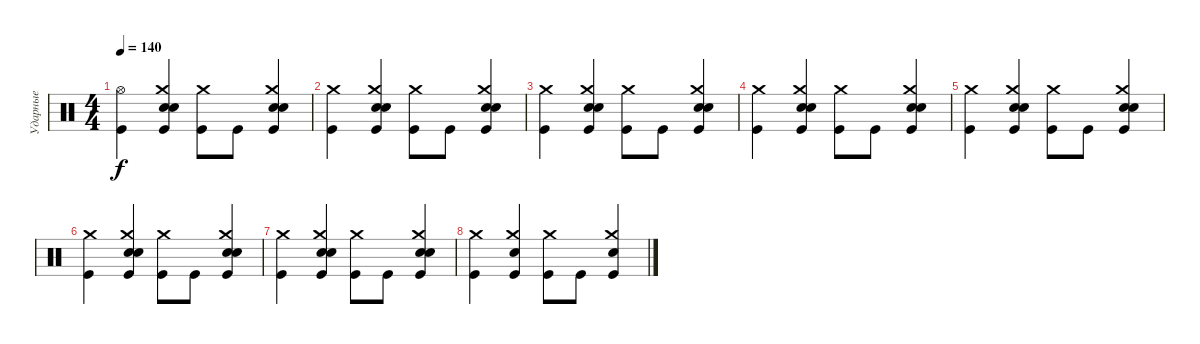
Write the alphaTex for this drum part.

\track ("Ударные" "Ударные") {instrument percussion}
\staff {score}
\articulation defaults
\ts (4 4)
\tempo 140
\clef neutral
\ks c
("Hi-Hat (open)" "Kick (hit)").4{dy f} ("Crash medium (hit)" "Electric Snare (hit)" "Snare (hit) 2" "Kick (hit)").4 ("Crash medium (hit)" "Kick (hit)").8 "Kick (hit)".8 ("Crash medium (hit)" "Electric Snare (hit)" "Snare (hit) 2" "Kick (hit)").4 |
("Crash medium (hit)" "Kick (hit)").4 ("Crash medium (hit)" "Electric Snare (hit)" "Snare (hit) 2" "Kick (hit)").4 ("Crash medium (hit)" "Kick (hit)").8 "Kick (hit)".8 ("Crash medium (hit)" "Electric Snare (hit)" "Snare (hit) 2" "Kick (hit)").4 |
("Crash medium (hit)" "Kick (hit)").4 ("Crash medium (hit)" "Electric Snare (hit)" "Snare (hit) 2" "Kick (hit)").4 ("Crash medium (hit)" "Kick (hit)").8 "Kick (hit)".8 ("Crash medium (hit)" "Electric Snare (hit)" "Snare (hit) 2" "Kick (hit)").4 |
("Crash medium (hit)" "Kick (hit)").4 ("Crash medium (hit)" "Electric Snare (hit)" "Snare (hit) 2" "Kick (hit)").4 ("Crash medium (hit)" "Kick (hit)").8 "Kick (hit)".8 ("Crash medium (hit)" "Electric Snare (hit)" "Snare (hit) 2" "Kick (hit)").4 |
("Crash medium (hit)" "Kick (hit)").4 ("Crash medium (hit)" "Electric Snare (hit)" "Snare (hit) 2" "Kick (hit)").4 ("Crash medium (hit)" "Kick (hit)").8 "Kick (hit)".8 ("Crash medium (hit)" "Electric Snare (hit)" "Snare (hit) 2" "Kick (hit)").4 |
("Crash medium (hit)" "Kick (hit)").4 ("Crash medium (hit)" "Electric Snare (hit)" "Snare (hit) 2" "Kick (hit)").4 ("Crash medium (hit)" "Kick (hit)").8 "Kick (hit)".8 ("Crash medium (hit)" "Electric Snare (hit)" "Snare (hit) 2" "Kick (hit)").4 |
("Crash medium (hit)" "Kick (hit)").4 ("Crash medium (hit)" "Electric Snare (hit)" "Snare (hit) 2" "Kick (hit)").4 ("Crash medium (hit)" "Kick (hit)").8 "Kick (hit)".8 ("Crash medium (hit)" "Electric Snare (hit)" "Snare (hit) 2" "Kick (hit)").4 |
("Crash medium (hit)" "Kick (hit)").4 ("Crash medium (hit)" "Electric Snare (hit)" "Kick (hit)").4 ("Crash medium (hit)" "Kick (hit)").8 "Kick (hit)".8 ("Crash medium (hit)" "Electric Snare (hit)" "Kick (hit)").4
